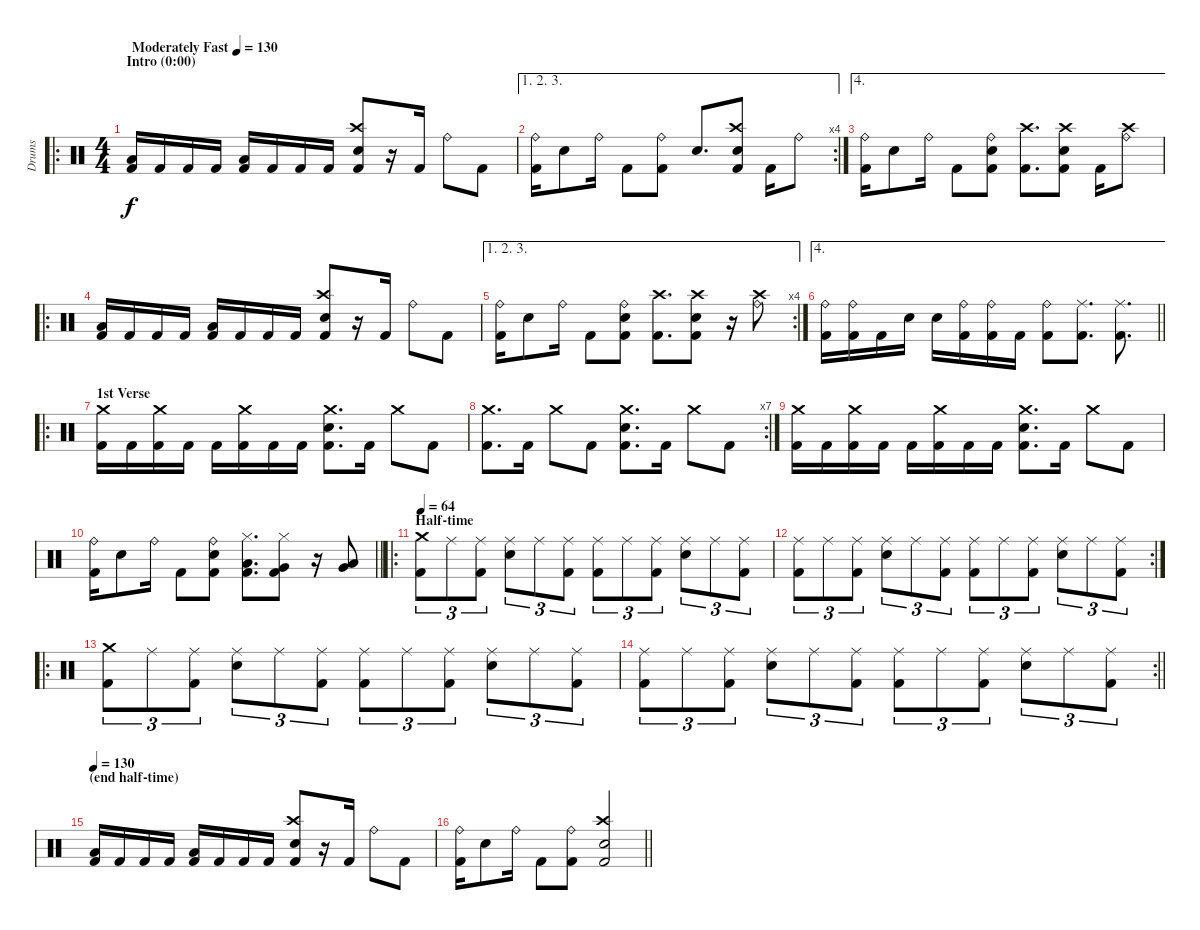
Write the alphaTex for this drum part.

\track ("Drums" "Drums") {instrument percussion}
\staff {score}
\articulation defaults
\ro
\ts (4 4)
\section ("" "Intro (0:00)")
\tempo (130 "Moderately Fast")
\clef neutral
\ks c
("Low Floor Tom (hit)" "Kick (hit) 2").16{dy f} "Kick (hit) 2".16 "Kick (hit) 2".16 "Kick (hit) 2".16 ("Low Floor Tom (hit)" "Kick (hit) 2").16 "Kick (hit) 2".16 "Kick (hit) 2".16 "Kick (hit) 2".16 ("Crash high (hit)" "Electric Snare (hit)" "Kick (hit) 2").8 r.16 "Kick (hit) 2".16 "Ride (bell)".8 "Kick (hit) 2".8 |
\ae (1 2 3)
\rc 4
("Ride (bell)" "Kick (hit) 2").16 "Electric Snare (hit)".8 "Ride (bell)".16 "Kick (hit) 2".8 ("Ride (bell)" "Kick (hit) 2").8 "Electric Snare (hit)".8{d} ("Crash high (hit)" "Electric Snare (hit)" "Kick (hit) 2").8 "Kick (hit) 2".16 "Ride (bell)".8 |
\ae 4
("Ride (bell)" "Kick (hit) 2").16 "Electric Snare (hit)".8 "Ride (bell)".16 "Kick (hit) 2".8 ("Electric Snare (hit)" "Ride (bell)" "Kick (hit) 2").8 ("Crash high (hit)" "Kick (hit) 2").8{d} ("Crash high (hit)" "Electric Snare (hit)" "Kick (hit) 2").8 "Kick (hit) 2".16 ("Crash high (hit)" "Ride (bell)").8 |
\ro
("Low Floor Tom (hit)" "Kick (hit) 2").16 "Kick (hit) 2".16 "Kick (hit) 2".16 "Kick (hit) 2".16 ("Low Floor Tom (hit)" "Kick (hit) 2").16 "Kick (hit) 2".16 "Kick (hit) 2".16 "Kick (hit) 2".16 ("Crash high (hit)" "Electric Snare (hit)" "Kick (hit) 2").8 r.16 "Kick (hit) 2".16 "Ride (bell)".8 "Kick (hit) 2".8 |
\ae (1 2 3)
\rc 4
("Ride (bell)" "Kick (hit) 2").16 "Electric Snare (hit)".8 "Ride (bell)".16 "Kick (hit) 2".8 ("Electric Snare (hit)" "Ride (bell)" "Kick (hit) 2").8 ("Crash high (hit)" "Kick (hit) 2").8{d} ("Crash high (hit)" "Electric Snare (hit)" "Kick (hit) 2").8 r.16 ("Crash high (hit)" "Ride (bell)").8 |
\ae 4
\barLineRight lightlight
("Ride (bell)" "Kick (hit) 2").16 ("Ride (bell)" "Kick (hit) 2").16 "Kick (hit) 2".16 "Electric Snare (hit)".16 "Electric Snare (hit)".16 ("Ride (bell)" "Kick (hit) 2").16 ("Ride (bell)" "Kick (hit) 2").16 "Kick (hit) 2".16 ("Ride (bell)" "Kick (hit) 2").8 ("Ride (middle)" "Kick (hit) 2").8{d} ("Ride (middle)" "Kick (hit) 2").8{d} |
\ro
\section ("" "1st Verse ")
("Crash medium (hit)" "Kick (hit) 2").16 "Kick (hit) 2".16 ("Crash medium (hit)" "Kick (hit) 2").16 "Kick (hit) 2".16 "Kick (hit) 2".16 ("Crash medium (hit)" "Kick (hit) 2").16 "Kick (hit) 2".16 "Kick (hit) 2".16 ("Crash medium (hit)" "Electric Snare (hit)" "Kick (hit) 2").8{d} "Kick (hit) 2".16 "Crash medium (hit)".8 "Kick (hit) 2".8 |
\rc 7
("Crash medium (hit)" "Kick (hit) 2").8{d} "Kick (hit) 2".16 "Crash medium (hit)".8 "Kick (hit) 2".8 ("Crash medium (hit)" "Electric Snare (hit)" "Kick (hit) 2").8{d} "Kick (hit) 2".16 "Crash medium (hit)".8 "Kick (hit) 2".8 |
("Crash medium (hit)" "Kick (hit) 2").16 "Kick (hit) 2".16 ("Crash medium (hit)" "Kick (hit) 2").16 "Kick (hit) 2".16 "Kick (hit) 2".16 ("Crash medium (hit)" "Kick (hit) 2").16 "Kick (hit) 2".16 "Kick (hit) 2".16 ("Crash medium (hit)" "Electric Snare (hit)" "Kick (hit) 2").8{d} "Kick (hit) 2".16 "Crash medium (hit)".8 "Kick (hit) 2".8 |
\barLineRight lightlight
("Ride (bell)" "Kick (hit) 2").16 "Electric Snare (hit)".8 "Ride (bell)".16 "Kick (hit) 2".8 ("Electric Snare (hit)" "Ride (bell)" "Kick (hit) 2").8 ("Low Floor Tom (hit)" "Hi-Hat (closed)" "Kick (hit) 2").8{d} ("Very Low Tom (hit)" "Hi-Hat (closed)" "Kick (hit) 2").8 r.16 ("Low Tom (hit)" "Very Low Tom (hit)").8 |
\ro
\section ("" "Half-time")
\tempo 64
("Crash medium (hit)" "Kick (hit) 2").8{tu (3 2)} "Ride (middle)".8{tu (3 2)} ("Ride (middle)" "Kick (hit) 2").8{tu (3 2)} ("Ride (middle)" "Electric Snare (hit)").8{tu (3 2)} "Ride (middle)".8{tu (3 2)} ("Ride (middle)" "Kick (hit) 2").8{tu (3 2)} ("Ride (middle)" "Kick (hit) 2").8{tu (3 2)} "Ride (middle)".8{tu (3 2)} ("Ride (middle)" "Kick (hit) 2").8{tu (3 2)} ("Ride (middle)" "Electric Snare (hit)").8{tu (3 2)} "Ride (middle)".8{tu (3 2)} ("Ride (middle)" "Kick (hit) 2").8{tu (3 2)} |
\rc 2
("Ride (middle)" "Kick (hit) 2").8{tu (3 2)} "Ride (middle)".8{tu (3 2)} ("Ride (middle)" "Kick (hit) 2").8{tu (3 2)} ("Ride (middle)" "Electric Snare (hit)").8{tu (3 2)} "Ride (middle)".8{tu (3 2)} ("Ride (middle)" "Kick (hit) 2").8{tu (3 2)} ("Ride (middle)" "Kick (hit) 2").8{tu (3 2)} "Ride (middle)".8{tu (3 2)} ("Ride (middle)" "Kick (hit) 2").8{tu (3 2)} ("Ride (middle)" "Electric Snare (hit)").8{tu (3 2)} "Ride (middle)".8{tu (3 2)} ("Ride (middle)" "Kick (hit) 2").8{tu (3 2)} |
\ro
("Crash medium (hit)" "Kick (hit) 2").8{tu (3 2)} "Ride (middle)".8{tu (3 2)} ("Ride (middle)" "Kick (hit) 2").8{tu (3 2)} ("Ride (middle)" "Electric Snare (hit)").8{tu (3 2)} "Ride (middle)".8{tu (3 2)} ("Ride (middle)" "Kick (hit) 2").8{tu (3 2)} ("Ride (middle)" "Kick (hit) 2").8{tu (3 2)} "Ride (middle)".8{tu (3 2)} ("Ride (middle)" "Kick (hit) 2").8{tu (3 2)} ("Ride (middle)" "Electric Snare (hit)").8{tu (3 2)} "Ride (middle)".8{tu (3 2)} ("Ride (middle)" "Kick (hit) 2").8{tu (3 2)} |
\rc 2
\barLineRight lightlight
("Ride (middle)" "Kick (hit) 2").8{tu (3 2)} "Ride (middle)".8{tu (3 2)} ("Ride (middle)" "Kick (hit) 2").8{tu (3 2)} ("Ride (middle)" "Electric Snare (hit)").8{tu (3 2)} "Ride (middle)".8{tu (3 2)} ("Ride (middle)" "Kick (hit) 2").8{tu (3 2)} ("Ride (middle)" "Kick (hit) 2").8{tu (3 2)} "Ride (middle)".8{tu (3 2)} ("Ride (middle)" "Kick (hit) 2").8{tu (3 2)} ("Ride (middle)" "Electric Snare (hit)").8{tu (3 2)} "Ride (middle)".8{tu (3 2)} ("Ride (middle)" "Kick (hit) 2").8{tu (3 2)} |
\section ("" "(end half-time)")
\tempo 130
("Low Floor Tom (hit)" "Kick (hit) 2").16 "Kick (hit) 2".16 "Kick (hit) 2".16 "Kick (hit) 2".16 ("Low Floor Tom (hit)" "Kick (hit) 2").16 "Kick (hit) 2".16 "Kick (hit) 2".16 "Kick (hit) 2".16 ("Crash high (hit)" "Electric Snare (hit)" "Kick (hit) 2").8 r.16 "Kick (hit) 2".16 "Ride (bell)".8 "Kick (hit) 2".8 |
\barLineRight lightlight
("Ride (bell)" "Kick (hit) 2").16 "Electric Snare (hit)".8 "Ride (bell)".16 "Kick (hit) 2".8 ("Ride (bell)" "Kick (hit) 2").8 ("Crash high (hit)" "Electric Snare (hit)" "Kick (hit) 2").2
